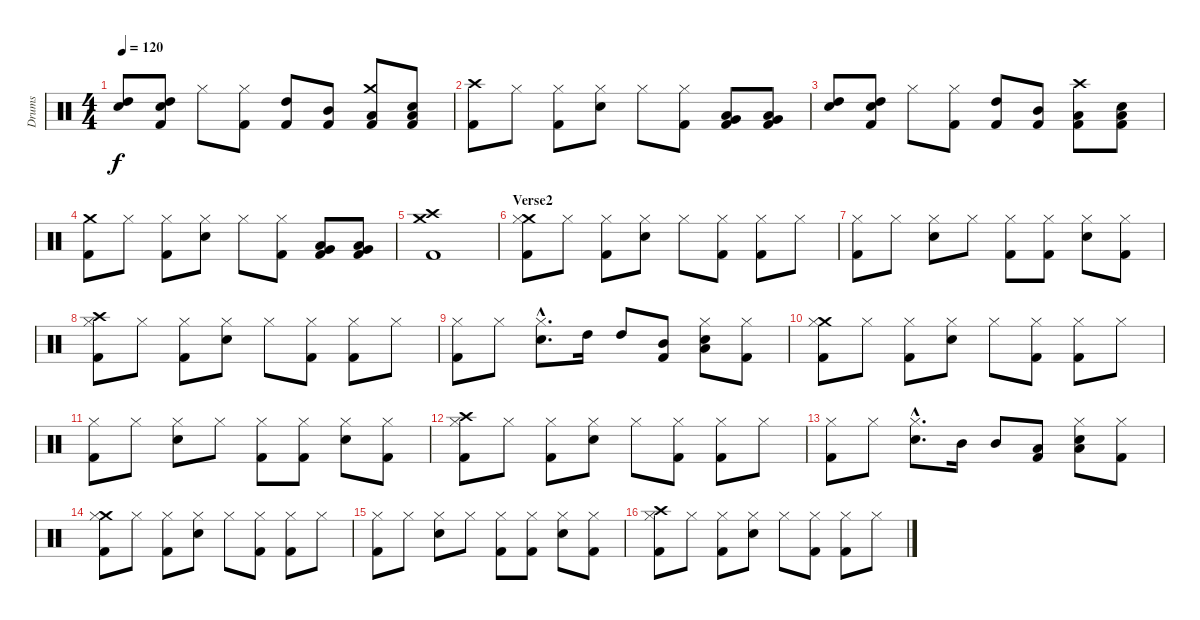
\track ("Drums" "Drums") {instrument percussion}
\staff {score}
\articulation defaults
\ts (4 4)
\tempo 120
\clef neutral
\ks c
("Snare (hit) 2" "High Tom (hit)").8{dy f} ("Snare (hit) 2" "High Tom (hit)" "Kick (hit) 2").8 "Hi-Hat (closed)".8 ("Hi-Hat (closed)" "Kick (hit) 2").8 ("High Tom (hit)" "Kick (hit) 2").8 ("Mid Tom (hit)" "Kick (hit) 2").8 ("Crash medium (hit)" "Low Tom (hit)" "Kick (hit) 2").8 ("Low Floor Tom (hit)" "Snare (hit) 2" "Kick (hit) 2").8 |
("Crash high (hit)" "Kick (hit) 2").8 "Hi-Hat (closed)".8 ("Hi-Hat (closed)" "Kick (hit) 2").8 ("Hi-Hat (closed)" "Snare (hit) 2").8 "Hi-Hat (closed)".8 ("Hi-Hat (closed)" "Kick (hit) 2").8 ("Low Floor Tom (hit)" "Very Low Tom (hit)" "Kick (hit) 2").8 ("Low Floor Tom (hit)" "Very Low Tom (hit)" "Kick (hit) 2").8 |
("Snare (hit) 2" "High Tom (hit)").8 ("Snare (hit) 2" "High Tom (hit)" "Kick (hit) 2").8 "Hi-Hat (closed)".8 ("Hi-Hat (closed)" "Kick (hit) 2").8 ("High Tom (hit)" "Kick (hit) 2").8 ("Mid Tom (hit)" "Kick (hit) 2").8 ("Crash high (hit)" "Low Tom (hit)" "Kick (hit) 2").8 ("Low Floor Tom (hit)" "Snare (hit) 2" "Kick (hit) 2").8 |
("Crash medium (hit)" "Kick (hit) 2").8 "Hi-Hat (closed)".8 ("Hi-Hat (closed)" "Kick (hit) 2").8 ("Hi-Hat (closed)" "Snare (hit) 2").8 "Hi-Hat (closed)".8 ("Hi-Hat (closed)" "Kick (hit) 2").8 ("Low Floor Tom (hit)" "Very Low Tom (hit)" "Kick (hit) 2").8 ("Low Floor Tom (hit)" "Very Low Tom (hit)" "Kick (hit) 2").8 |
("Crash medium (hit)" "Crash high (hit)" "Kick (hit) 2").1 |
\section ("" "Verse2")
("Crash medium (hit)" "Hi-Hat (closed)" "Kick (hit) 2").8 "Hi-Hat (closed)".8 ("Hi-Hat (closed)" "Kick (hit) 2").8 ("Hi-Hat (closed)" "Snare (hit) 2").8 "Hi-Hat (closed)".8 ("Hi-Hat (closed)" "Kick (hit) 2").8 ("Hi-Hat (closed)" "Kick (hit) 2").8 "Hi-Hat (closed)".8 |
("Hi-Hat (closed)" "Kick (hit) 2").8 "Hi-Hat (closed)".8 ("Hi-Hat (closed)" "Snare (hit) 2").8 "Hi-Hat (closed)".8 ("Hi-Hat (closed)" "Kick (hit) 2").8 ("Hi-Hat (closed)" "Kick (hit) 2").8 ("Hi-Hat (closed)" "Snare (hit) 2").8 ("Hi-Hat (closed)" "Kick (hit) 2").8 |
("Crash high (hit)" "Hi-Hat (closed)" "Kick (hit) 2").8 "Hi-Hat (closed)".8 ("Hi-Hat (closed)" "Kick (hit) 2").8 ("Hi-Hat (closed)" "Snare (hit) 2").8 "Hi-Hat (closed)".8 ("Hi-Hat (closed)" "Kick (hit) 2").8 ("Hi-Hat (closed)" "Kick (hit) 2").8 "Hi-Hat (closed)".8 |
("Hi-Hat (closed)" "Kick (hit) 2").8 "Hi-Hat (closed)".8 ("Hi-Hat (closed)"{hac} "Snare (hit) 2"{hac}).8{d} "High Tom (hit)".16 "High Tom (hit)".8 ("Mid Tom (hit)" "Kick (hit) 2").8 ("Hi-Hat (closed)" "Low Tom (hit)" "Snare (hit) 2").8 ("Hi-Hat (closed)" "Kick (hit) 2").8 |
("Crash medium (hit)" "Hi-Hat (closed)" "Kick (hit) 2").8 "Hi-Hat (closed)".8 ("Hi-Hat (closed)" "Kick (hit) 2").8 ("Hi-Hat (closed)" "Snare (hit) 2").8 "Hi-Hat (closed)".8 ("Hi-Hat (closed)" "Kick (hit) 2").8 ("Hi-Hat (closed)" "Kick (hit) 2").8 "Hi-Hat (closed)".8 |
("Hi-Hat (closed)" "Kick (hit) 2").8 "Hi-Hat (closed)".8 ("Hi-Hat (closed)" "Snare (hit) 2").8 "Hi-Hat (closed)".8 ("Hi-Hat (closed)" "Kick (hit) 2").8 ("Hi-Hat (closed)" "Kick (hit) 2").8 ("Hi-Hat (closed)" "Snare (hit) 2").8 ("Hi-Hat (closed)" "Kick (hit) 2").8 |
("Crash high (hit)" "Hi-Hat (closed)" "Kick (hit) 2").8 "Hi-Hat (closed)".8 ("Hi-Hat (closed)" "Kick (hit) 2").8 ("Hi-Hat (closed)" "Snare (hit) 2").8 "Hi-Hat (closed)".8 ("Hi-Hat (closed)" "Kick (hit) 2").8 ("Hi-Hat (closed)" "Kick (hit) 2").8 "Hi-Hat (closed)".8 |
("Hi-Hat (closed)" "Kick (hit) 2").8 "Hi-Hat (closed)".8 ("Hi-Hat (closed)"{hac} "Snare (hit) 2"{hac}).8{d} "Mid Tom (hit)".16 "Mid Tom (hit)".8 ("Low Tom (hit)" "Kick (hit) 2").8 ("Hi-Hat (closed)" "Low Tom (hit)" "Snare (hit) 2").8 ("Hi-Hat (closed)" "Kick (hit) 2").8 |
("Crash medium (hit)" "Hi-Hat (closed)" "Kick (hit) 2").8 "Hi-Hat (closed)".8 ("Hi-Hat (closed)" "Kick (hit) 2").8 ("Hi-Hat (closed)" "Snare (hit) 2").8 "Hi-Hat (closed)".8 ("Hi-Hat (closed)" "Kick (hit) 2").8 ("Hi-Hat (closed)" "Kick (hit) 2").8 "Hi-Hat (closed)".8 |
("Hi-Hat (closed)" "Kick (hit) 2").8 "Hi-Hat (closed)".8 ("Hi-Hat (closed)" "Snare (hit) 2").8 "Hi-Hat (closed)".8 ("Hi-Hat (closed)" "Kick (hit) 2").8 ("Hi-Hat (closed)" "Kick (hit) 2").8 ("Hi-Hat (closed)" "Snare (hit) 2").8 ("Hi-Hat (closed)" "Kick (hit) 2").8 |
("Crash high (hit)" "Hi-Hat (closed)" "Kick (hit) 2").8 "Hi-Hat (closed)".8 ("Hi-Hat (closed)" "Kick (hit) 2").8 ("Hi-Hat (closed)" "Snare (hit) 2").8 "Hi-Hat (closed)".8 ("Hi-Hat (closed)" "Kick (hit) 2").8 ("Hi-Hat (closed)" "Kick (hit) 2").8 "Hi-Hat (closed)".8
